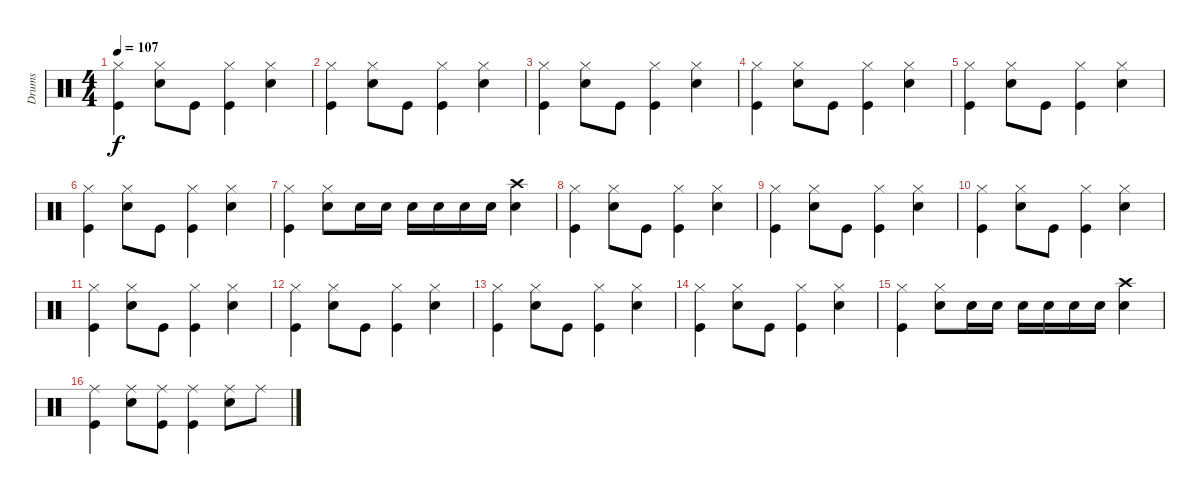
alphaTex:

\track ("Drums" "Drums") {instrument percussion}
\staff {score}
\articulation defaults
\ts (4 4)
\tempo 107
\clef neutral
\ks c
("Kick (hit)" "Hi-Hat (closed)").4{dy f} ("Snare (hit) 2" "Hi-Hat (closed)").8 "Kick (hit)".8 ("Kick (hit)" "Hi-Hat (closed)").4 ("Snare (hit) 2" "Hi-Hat (closed)").4 |
("Kick (hit)" "Hi-Hat (closed)").4 ("Snare (hit) 2" "Hi-Hat (closed)").8 "Kick (hit)".8 ("Kick (hit)" "Hi-Hat (closed)").4 ("Snare (hit) 2" "Hi-Hat (closed)").4 |
("Kick (hit)" "Hi-Hat (closed)").4 ("Snare (hit) 2" "Hi-Hat (closed)").8 "Kick (hit)".8 ("Kick (hit)" "Hi-Hat (closed)").4 ("Snare (hit) 2" "Hi-Hat (closed)").4 |
("Kick (hit)" "Hi-Hat (closed)").4 ("Snare (hit) 2" "Hi-Hat (closed)").8 "Kick (hit)".8 ("Kick (hit)" "Hi-Hat (closed)").4 ("Snare (hit) 2" "Hi-Hat (closed)").4 |
("Kick (hit)" "Hi-Hat (closed)").4 ("Snare (hit) 2" "Hi-Hat (closed)").8 "Kick (hit)".8 ("Kick (hit)" "Hi-Hat (closed)").4 ("Snare (hit) 2" "Hi-Hat (closed)").4 |
("Kick (hit)" "Hi-Hat (closed)").4 ("Snare (hit) 2" "Hi-Hat (closed)").8 "Kick (hit)".8 ("Kick (hit)" "Hi-Hat (closed)").4 ("Snare (hit) 2" "Hi-Hat (closed)").4 |
("Kick (hit)" "Hi-Hat (closed)").4 ("Snare (hit) 2" "Hi-Hat (closed)").8 "Snare (hit) 2".16 "Snare (hit) 2".16 "Snare (hit) 2".16 "Snare (hit) 2".16 "Snare (hit) 2".16 "Snare (hit) 2".16 ("Crash high (hit)" "Snare (hit) 2").4 |
("Kick (hit)" "Hi-Hat (closed)").4 ("Snare (hit) 2" "Hi-Hat (closed)").8 "Kick (hit)".8 ("Kick (hit)" "Hi-Hat (closed)").4 ("Snare (hit) 2" "Hi-Hat (closed)").4 |
("Kick (hit)" "Hi-Hat (closed)").4 ("Snare (hit) 2" "Hi-Hat (closed)").8 "Kick (hit)".8 ("Kick (hit)" "Hi-Hat (closed)").4 ("Snare (hit) 2" "Hi-Hat (closed)").4 |
("Kick (hit)" "Hi-Hat (closed)").4 ("Snare (hit) 2" "Hi-Hat (closed)").8 "Kick (hit)".8 ("Kick (hit)" "Hi-Hat (closed)").4 ("Snare (hit) 2" "Hi-Hat (closed)").4 |
("Kick (hit)" "Hi-Hat (closed)").4 ("Snare (hit) 2" "Hi-Hat (closed)").8 "Kick (hit)".8 ("Kick (hit)" "Hi-Hat (closed)").4 ("Snare (hit) 2" "Hi-Hat (closed)").4 |
("Kick (hit)" "Hi-Hat (closed)").4 ("Snare (hit) 2" "Hi-Hat (closed)").8 "Kick (hit)".8 ("Kick (hit)" "Hi-Hat (closed)").4 ("Snare (hit) 2" "Hi-Hat (closed)").4 |
("Kick (hit)" "Hi-Hat (closed)").4 ("Snare (hit) 2" "Hi-Hat (closed)").8 "Kick (hit)".8 ("Kick (hit)" "Hi-Hat (closed)").4 ("Snare (hit) 2" "Hi-Hat (closed)").4 |
("Kick (hit)" "Hi-Hat (closed)").4 ("Snare (hit) 2" "Hi-Hat (closed)").8 "Kick (hit)".8 ("Kick (hit)" "Hi-Hat (closed)").4 ("Snare (hit) 2" "Hi-Hat (closed)").4 |
("Kick (hit)" "Hi-Hat (closed)").4 ("Snare (hit) 2" "Hi-Hat (closed)").8 "Snare (hit) 2".16 "Snare (hit) 2".16 "Snare (hit) 2".16 "Snare (hit) 2".16 "Snare (hit) 2".16 "Snare (hit) 2".16 ("Crash high (hit)" "Snare (hit) 2").4 |
("Kick (hit)" "Ride (middle)").4 ("Snare (hit) 2" "Ride (middle)").8 ("Kick (hit)" "Ride (middle)").8 ("Kick (hit)" "Ride (middle)").4 ("Snare (hit) 2" "Ride (middle)").8 "Ride (middle)".8
